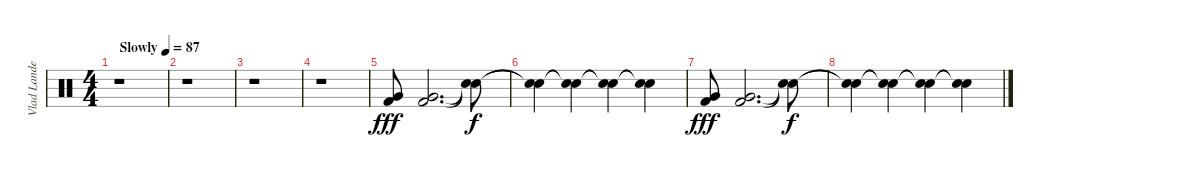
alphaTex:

\track ("Vlad Landeros" "Vlad Lande") {instrument percussion}
\staff {score}
\articulation defaults
\ts (4 4)
\tempo (87 "Slowly")
\clef neutral
\ks c
r.1{dy fff} |
r.1 |
r.1 |
r.1 |
("Very Low Tom (hit)" "Kick (hit) 2").8 ("Very Low Tom (hit)" "Kick (hit) 2").2{d} ("Snare (hit)"{t} "Snare (hit)"{t}).8{dy f} |
("Snare (hit)"{t} "Snare (hit)"{t}).4 ("Snare (hit)"{t} "Snare (hit)"{t}).4 ("Snare (hit)"{t} "Snare (hit)"{t}).4 ("Snare (hit)"{t} "Snare (hit)"{t}).4 |
("Very Low Tom (hit)" "Kick (hit) 2").8{dy fff} ("Very Low Tom (hit)" "Kick (hit) 2").2{d} ("Snare (hit)"{t} "Snare (hit)"{t}).8{dy f} |
("Snare (hit)"{t} "Snare (hit)"{t}).4 ("Snare (hit)"{t} "Snare (hit)"{t}).4 ("Snare (hit)"{t} "Snare (hit)"{t}).4 ("Snare (hit)"{t} "Snare (hit)"{t}).4
